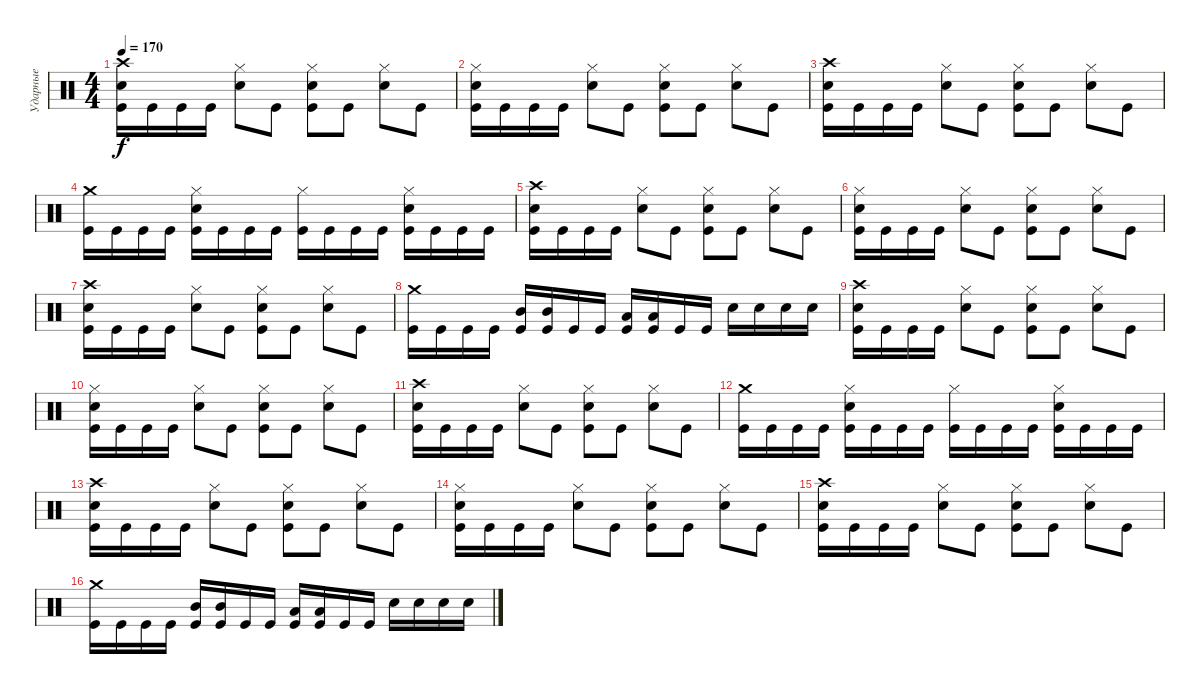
\track ("Ударные" "Ударные") {instrument percussion}
\staff {score}
\articulation defaults
\ts (4 4)
\tempo 170
\clef neutral
\ks c
("Crash high (hit)" "Electric Snare (hit)" "Kick (hit)").16{dy f} "Kick (hit)".16 "Kick (hit)".16 "Kick (hit)".16 ("Hi-Hat (closed)" "Electric Snare (hit)").8 "Kick (hit)".8 ("Hi-Hat (closed)" "Electric Snare (hit)" "Kick (hit)").8 "Kick (hit)".8 ("Hi-Hat (closed)" "Electric Snare (hit)").8 "Kick (hit)".8 |
("Hi-Hat (closed)" "Electric Snare (hit)" "Kick (hit)").16 "Kick (hit)".16 "Kick (hit)".16 "Kick (hit)".16 ("Hi-Hat (closed)" "Electric Snare (hit)").8 "Kick (hit)".8 ("Hi-Hat (closed)" "Electric Snare (hit)" "Kick (hit)").8 "Kick (hit)".8 ("Hi-Hat (closed)" "Electric Snare (hit)").8 "Kick (hit)".8 |
("Crash high (hit)" "Electric Snare (hit)" "Kick (hit)").16 "Kick (hit)".16 "Kick (hit)".16 "Kick (hit)".16 ("Hi-Hat (closed)" "Electric Snare (hit)").8 "Kick (hit)".8 ("Hi-Hat (closed)" "Electric Snare (hit)" "Kick (hit)").8 "Kick (hit)".8 ("Hi-Hat (closed)" "Electric Snare (hit)").8 "Kick (hit)".8 |
("Crash medium (hit)" "Kick (hit)").16 "Kick (hit)".16 "Kick (hit)".16 "Kick (hit)".16 ("Hi-Hat (closed)" "Electric Snare (hit)" "Kick (hit)").16 "Kick (hit)".16 "Kick (hit)".16 "Kick (hit)".16 ("Hi-Hat (closed)" "Kick (hit)").16 "Kick (hit)".16 "Kick (hit)".16 "Kick (hit)".16 ("Hi-Hat (closed)" "Electric Snare (hit)" "Kick (hit)").16 "Kick (hit)".16 "Kick (hit)".16 "Kick (hit)".16 |
("Crash high (hit)" "Electric Snare (hit)" "Kick (hit)").16 "Kick (hit)".16 "Kick (hit)".16 "Kick (hit)".16 ("Hi-Hat (closed)" "Electric Snare (hit)").8 "Kick (hit)".8 ("Hi-Hat (closed)" "Electric Snare (hit)" "Kick (hit)").8 "Kick (hit)".8 ("Hi-Hat (closed)" "Electric Snare (hit)").8 "Kick (hit)".8 |
("Hi-Hat (closed)" "Electric Snare (hit)" "Kick (hit)").16 "Kick (hit)".16 "Kick (hit)".16 "Kick (hit)".16 ("Hi-Hat (closed)" "Electric Snare (hit)").8 "Kick (hit)".8 ("Hi-Hat (closed)" "Electric Snare (hit)" "Kick (hit)").8 "Kick (hit)".8 ("Hi-Hat (closed)" "Electric Snare (hit)").8 "Kick (hit)".8 |
("Crash high (hit)" "Electric Snare (hit)" "Kick (hit)").16 "Kick (hit)".16 "Kick (hit)".16 "Kick (hit)".16 ("Hi-Hat (closed)" "Electric Snare (hit)").8 "Kick (hit)".8 ("Hi-Hat (closed)" "Electric Snare (hit)" "Kick (hit)").8 "Kick (hit)".8 ("Hi-Hat (closed)" "Electric Snare (hit)").8 "Kick (hit)".8 |
("Crash medium (hit)" "Kick (hit)").16 "Kick (hit)".16 "Kick (hit)".16 "Kick (hit)".16 ("Mid Tom (hit)" "Kick (hit)").16 ("Mid Tom (hit)" "Kick (hit)").16 "Kick (hit)".16 "Kick (hit)".16 ("Low Tom (hit)" "Kick (hit)").16 ("Low Tom (hit)" "Kick (hit)").16 "Kick (hit)".16 "Kick (hit)".16 "Electric Snare (hit)".16 "Electric Snare (hit)".16 "Electric Snare (hit)".16 "Electric Snare (hit)".16 |
("Crash high (hit)" "Electric Snare (hit)" "Kick (hit)").16 "Kick (hit)".16 "Kick (hit)".16 "Kick (hit)".16 ("Hi-Hat (closed)" "Electric Snare (hit)").8 "Kick (hit)".8 ("Hi-Hat (closed)" "Electric Snare (hit)" "Kick (hit)").8 "Kick (hit)".8 ("Hi-Hat (closed)" "Electric Snare (hit)").8 "Kick (hit)".8 |
("Hi-Hat (closed)" "Electric Snare (hit)" "Kick (hit)").16 "Kick (hit)".16 "Kick (hit)".16 "Kick (hit)".16 ("Hi-Hat (closed)" "Electric Snare (hit)").8 "Kick (hit)".8 ("Hi-Hat (closed)" "Electric Snare (hit)" "Kick (hit)").8 "Kick (hit)".8 ("Hi-Hat (closed)" "Electric Snare (hit)").8 "Kick (hit)".8 |
("Crash high (hit)" "Electric Snare (hit)" "Kick (hit)").16 "Kick (hit)".16 "Kick (hit)".16 "Kick (hit)".16 ("Hi-Hat (closed)" "Electric Snare (hit)").8 "Kick (hit)".8 ("Hi-Hat (closed)" "Electric Snare (hit)" "Kick (hit)").8 "Kick (hit)".8 ("Hi-Hat (closed)" "Electric Snare (hit)").8 "Kick (hit)".8 |
("Crash medium (hit)" "Kick (hit)").16 "Kick (hit)".16 "Kick (hit)".16 "Kick (hit)".16 ("Hi-Hat (closed)" "Electric Snare (hit)" "Kick (hit)").16 "Kick (hit)".16 "Kick (hit)".16 "Kick (hit)".16 ("Hi-Hat (closed)" "Kick (hit)").16 "Kick (hit)".16 "Kick (hit)".16 "Kick (hit)".16 ("Hi-Hat (closed)" "Electric Snare (hit)" "Kick (hit)").16 "Kick (hit)".16 "Kick (hit)".16 "Kick (hit)".16 |
("Crash high (hit)" "Electric Snare (hit)" "Kick (hit)").16 "Kick (hit)".16 "Kick (hit)".16 "Kick (hit)".16 ("Hi-Hat (closed)" "Electric Snare (hit)").8 "Kick (hit)".8 ("Hi-Hat (closed)" "Electric Snare (hit)" "Kick (hit)").8 "Kick (hit)".8 ("Hi-Hat (closed)" "Electric Snare (hit)").8 "Kick (hit)".8 |
("Hi-Hat (closed)" "Electric Snare (hit)" "Kick (hit)").16 "Kick (hit)".16 "Kick (hit)".16 "Kick (hit)".16 ("Hi-Hat (closed)" "Electric Snare (hit)").8 "Kick (hit)".8 ("Hi-Hat (closed)" "Electric Snare (hit)" "Kick (hit)").8 "Kick (hit)".8 ("Hi-Hat (closed)" "Electric Snare (hit)").8 "Kick (hit)".8 |
("Crash high (hit)" "Electric Snare (hit)" "Kick (hit)").16 "Kick (hit)".16 "Kick (hit)".16 "Kick (hit)".16 ("Hi-Hat (closed)" "Electric Snare (hit)").8 "Kick (hit)".8 ("Hi-Hat (closed)" "Electric Snare (hit)" "Kick (hit)").8 "Kick (hit)".8 ("Hi-Hat (closed)" "Electric Snare (hit)").8 "Kick (hit)".8 |
("Crash medium (hit)" "Kick (hit)").16 "Kick (hit)".16 "Kick (hit)".16 "Kick (hit)".16 ("Mid Tom (hit)" "Kick (hit)").16 ("Mid Tom (hit)" "Kick (hit)").16 "Kick (hit)".16 "Kick (hit)".16 ("Low Tom (hit)" "Kick (hit)").16 ("Low Tom (hit)" "Kick (hit)").16 "Kick (hit)".16 "Kick (hit)".16 "Electric Snare (hit)".16 "Electric Snare (hit)".16 "Electric Snare (hit)".16 "Electric Snare (hit)".16
